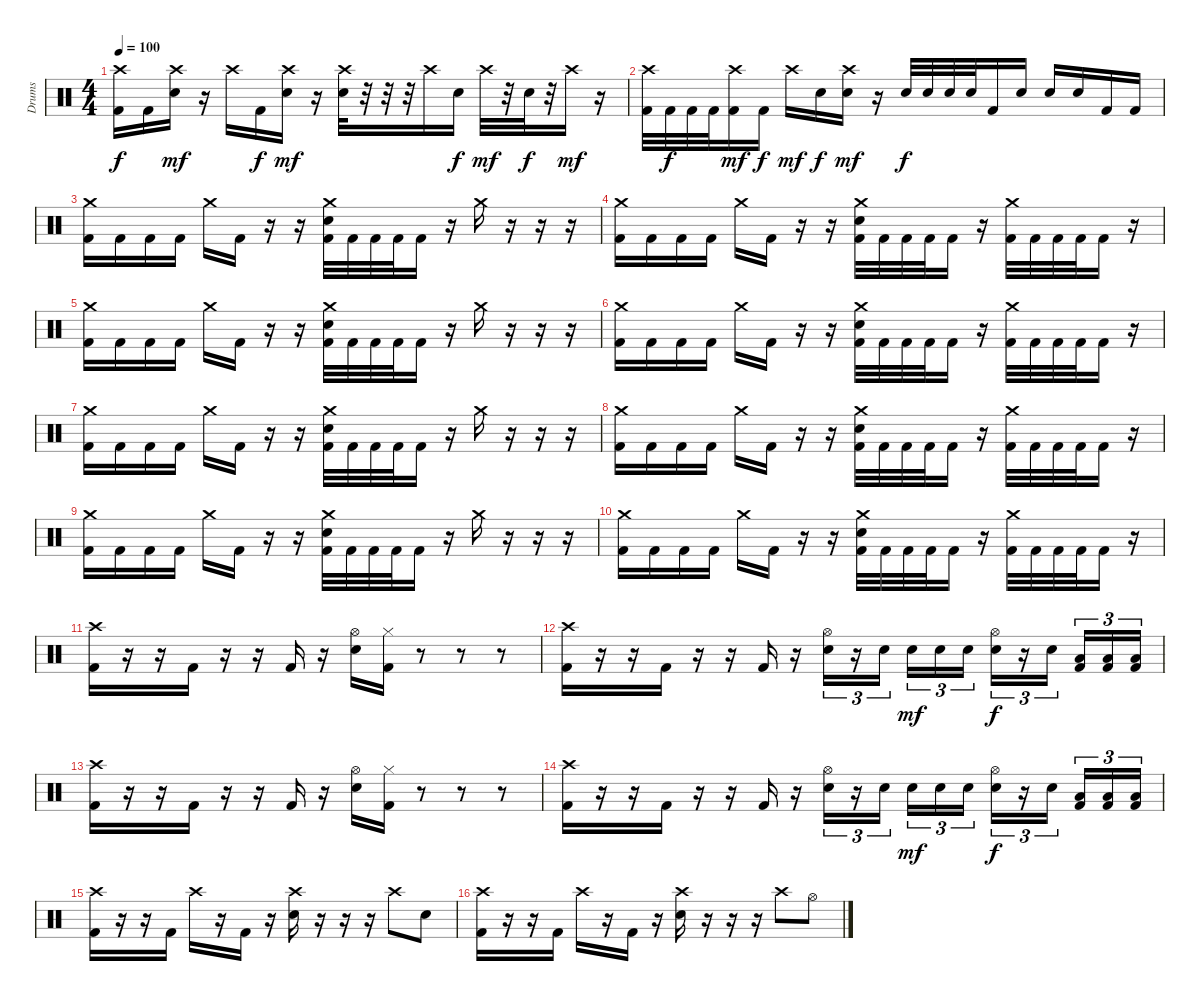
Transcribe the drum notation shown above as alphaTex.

\track ("Drums " "Drums ") {instrument percussion}
\staff {score}
\articulation defaults
\ts (4 4)
\tempo 100
\clef neutral
\ks c
("Crash high (hit)" "Kick (hit) 2").16{dy f} "Kick (hit) 2".16 ("Crash high (hit)" "Electric Snare (hit)").16{dy mf} r.16 "Crash high (hit)".16 "Kick (hit) 2".16{dy f} ("Crash high (hit)" "Electric Snare (hit)").16{dy mf} r.16 ("Crash high (hit)" "Electric Snare (hit)").32 r.32 r.32 r.32 "Crash high (hit)".16 "Electric Snare (hit)".16{dy f} "Crash high (hit)".32{dy mf} r.32 "Electric Snare (hit)".32{dy f} r.32 "Crash high (hit)".16{dy mf} r.16 |
("Crash high (hit)" "Kick (hit) 2").32 "Kick (hit) 2".32{dy f} "Kick (hit) 2".32 "Kick (hit) 2".32 ("Crash high (hit)" "Kick (hit) 2").16{dy mf} "Kick (hit) 2".16{dy f} "Crash high (hit)".16{dy mf} "Electric Snare (hit)".16{dy f} ("Crash high (hit)" "Electric Snare (hit)").16{dy mf} r.16 "Electric Snare (hit)".32{dy f} "Electric Snare (hit)".32 "Electric Snare (hit)".32 "Electric Snare (hit)".32 "Kick (hit) 2".16 "Electric Snare (hit)".16 "Electric Snare (hit)".16 "Electric Snare (hit)".16 "Kick (hit) 2".16 "Kick (hit) 2".16 |
("Crash medium (hit)" "Kick (hit) 2").16 "Kick (hit) 2".16 "Kick (hit) 2".16 "Kick (hit) 2".16 "Crash medium (hit)".16 "Kick (hit) 2".16 r.16 r.16 ("Crash medium (hit)" "Electric Snare (hit)" "Kick (hit) 2").32 "Kick (hit) 2".32 "Kick (hit) 2".32 "Kick (hit) 2".32 "Kick (hit) 2".16 r.16 "Crash medium (hit)".16 r.16 r.16 r.16 |
("Crash medium (hit)" "Kick (hit) 2").16 "Kick (hit) 2".16 "Kick (hit) 2".16 "Kick (hit) 2".16 "Crash medium (hit)".16 "Kick (hit) 2".16 r.16 r.16 ("Crash medium (hit)" "Electric Snare (hit)" "Kick (hit) 2").32 "Kick (hit) 2".32 "Kick (hit) 2".32 "Kick (hit) 2".32 "Kick (hit) 2".16 r.16 ("Crash medium (hit)" "Kick (hit) 2").32 "Kick (hit) 2".32 "Kick (hit) 2".32 "Kick (hit) 2".32 "Kick (hit) 2".16 r.16 |
("Crash medium (hit)" "Kick (hit) 2").16 "Kick (hit) 2".16 "Kick (hit) 2".16 "Kick (hit) 2".16 "Crash medium (hit)".16 "Kick (hit) 2".16 r.16 r.16 ("Crash medium (hit)" "Electric Snare (hit)" "Kick (hit) 2").32 "Kick (hit) 2".32 "Kick (hit) 2".32 "Kick (hit) 2".32 "Kick (hit) 2".16 r.16 "Crash medium (hit)".16 r.16 r.16 r.16 |
("Crash medium (hit)" "Kick (hit) 2").16 "Kick (hit) 2".16 "Kick (hit) 2".16 "Kick (hit) 2".16 "Crash medium (hit)".16 "Kick (hit) 2".16 r.16 r.16 ("Crash medium (hit)" "Electric Snare (hit)" "Kick (hit) 2").32 "Kick (hit) 2".32 "Kick (hit) 2".32 "Kick (hit) 2".32 "Kick (hit) 2".16 r.16 ("Crash medium (hit)" "Kick (hit) 2").32 "Kick (hit) 2".32 "Kick (hit) 2".32 "Kick (hit) 2".32 "Kick (hit) 2".16 r.16 |
("Crash medium (hit)" "Kick (hit) 2").16 "Kick (hit) 2".16 "Kick (hit) 2".16 "Kick (hit) 2".16 "Crash medium (hit)".16 "Kick (hit) 2".16 r.16 r.16 ("Crash medium (hit)" "Electric Snare (hit)" "Kick (hit) 2").32 "Kick (hit) 2".32 "Kick (hit) 2".32 "Kick (hit) 2".32 "Kick (hit) 2".16 r.16 "Crash medium (hit)".16 r.16 r.16 r.16 |
("Crash medium (hit)" "Kick (hit) 2").16 "Kick (hit) 2".16 "Kick (hit) 2".16 "Kick (hit) 2".16 "Crash medium (hit)".16 "Kick (hit) 2".16 r.16 r.16 ("Crash medium (hit)" "Electric Snare (hit)" "Kick (hit) 2").32 "Kick (hit) 2".32 "Kick (hit) 2".32 "Kick (hit) 2".32 "Kick (hit) 2".16 r.16 ("Crash medium (hit)" "Kick (hit) 2").32 "Kick (hit) 2".32 "Kick (hit) 2".32 "Kick (hit) 2".32 "Kick (hit) 2".16 r.16 |
("Crash medium (hit)" "Kick (hit) 2").16 "Kick (hit) 2".16 "Kick (hit) 2".16 "Kick (hit) 2".16 "Crash medium (hit)".16 "Kick (hit) 2".16 r.16 r.16 ("Crash medium (hit)" "Electric Snare (hit)" "Kick (hit) 2").32 "Kick (hit) 2".32 "Kick (hit) 2".32 "Kick (hit) 2".32 "Kick (hit) 2".16 r.16 "Crash medium (hit)".16 r.16 r.16 r.16 |
("Crash medium (hit)" "Kick (hit) 2").16 "Kick (hit) 2".16 "Kick (hit) 2".16 "Kick (hit) 2".16 "Crash medium (hit)".16 "Kick (hit) 2".16 r.16 r.16 ("Crash medium (hit)" "Electric Snare (hit)" "Kick (hit) 2").32 "Kick (hit) 2".32 "Kick (hit) 2".32 "Kick (hit) 2".32 "Kick (hit) 2".16 r.16 ("Crash medium (hit)" "Kick (hit) 2").32 "Kick (hit) 2".32 "Kick (hit) 2".32 "Kick (hit) 2".32 "Kick (hit) 2".16 r.16 |
("Crash high (hit)" "Kick (hit) 2").16 r.16 r.16 "Kick (hit) 2".16 r.16 r.16 "Kick (hit) 2".16 r.16 ("Hi-Hat (open)" "Electric Snare (hit)").16 ("Hi-Hat (closed)" "Kick (hit) 2").16 r.8 r.8 r.8 |
("Crash high (hit)" "Kick (hit) 2").16 r.16 r.16 "Kick (hit) 2".16 r.16 r.16 "Kick (hit) 2".16 r.16 ("Hi-Hat (open)" "Electric Snare (hit)").16{tu (3 2)} r.16{tu (3 2)} "Electric Snare (hit)".16{tu (3 2) beam splitsecondary} "Electric Snare (hit)".16{tu (3 2) dy mf} "Electric Snare (hit)".16{tu (3 2)} "Electric Snare (hit)".16{tu (3 2)} ("Hi-Hat (open)" "Electric Snare (hit)").16{tu (3 2) dy f} r.16{tu (3 2)} "Electric Snare (hit)".16{tu (3 2) beam splitsecondary} ("Kick (hit) 2" "Low Tom (hit)").16{tu (3 2)} ("Kick (hit) 2" "Low Tom (hit)").16{tu (3 2)} ("Kick (hit) 2" "Low Tom (hit)").16{tu (3 2)} |
("Crash high (hit)" "Kick (hit) 2").16 r.16 r.16 "Kick (hit) 2".16 r.16 r.16 "Kick (hit) 2".16 r.16 ("Hi-Hat (open)" "Electric Snare (hit)").16 ("Hi-Hat (closed)" "Kick (hit) 2").16 r.8 r.8 r.8 |
("Crash high (hit)" "Kick (hit) 2").16 r.16 r.16 "Kick (hit) 2".16 r.16 r.16 "Kick (hit) 2".16 r.16 ("Hi-Hat (open)" "Electric Snare (hit)").16{tu (3 2)} r.16{tu (3 2)} "Electric Snare (hit)".16{tu (3 2) beam splitsecondary} "Electric Snare (hit)".16{tu (3 2) dy mf} "Electric Snare (hit)".16{tu (3 2)} "Electric Snare (hit)".16{tu (3 2)} ("Hi-Hat (open)" "Electric Snare (hit)").16{tu (3 2) dy f} r.16{tu (3 2)} "Electric Snare (hit)".16{tu (3 2) beam splitsecondary} ("Kick (hit) 2" "Low Tom (hit)").16{tu (3 2)} ("Kick (hit) 2" "Low Tom (hit)").16{tu (3 2)} ("Kick (hit) 2" "Low Tom (hit)").16{tu (3 2)} |
("Crash high (hit)" "Kick (hit) 2").16 r.16 r.16 "Kick (hit) 2".16 "Crash high (hit)".16 r.16 "Kick (hit) 2".16 r.16 ("Crash high (hit)" "Electric Snare (hit)").16 r.16 r.16 r.16 "Crash high (hit)".8 "Electric Snare (hit)".8 |
("Crash high (hit)" "Kick (hit) 2").16 r.16 r.16 "Kick (hit) 2".16 "Crash high (hit)".16 r.16 "Kick (hit) 2".16 r.16 ("Crash high (hit)" "Electric Snare (hit)").16 r.16 r.16 r.16 "Crash high (hit)".8 "Hi-Hat (open)".8
